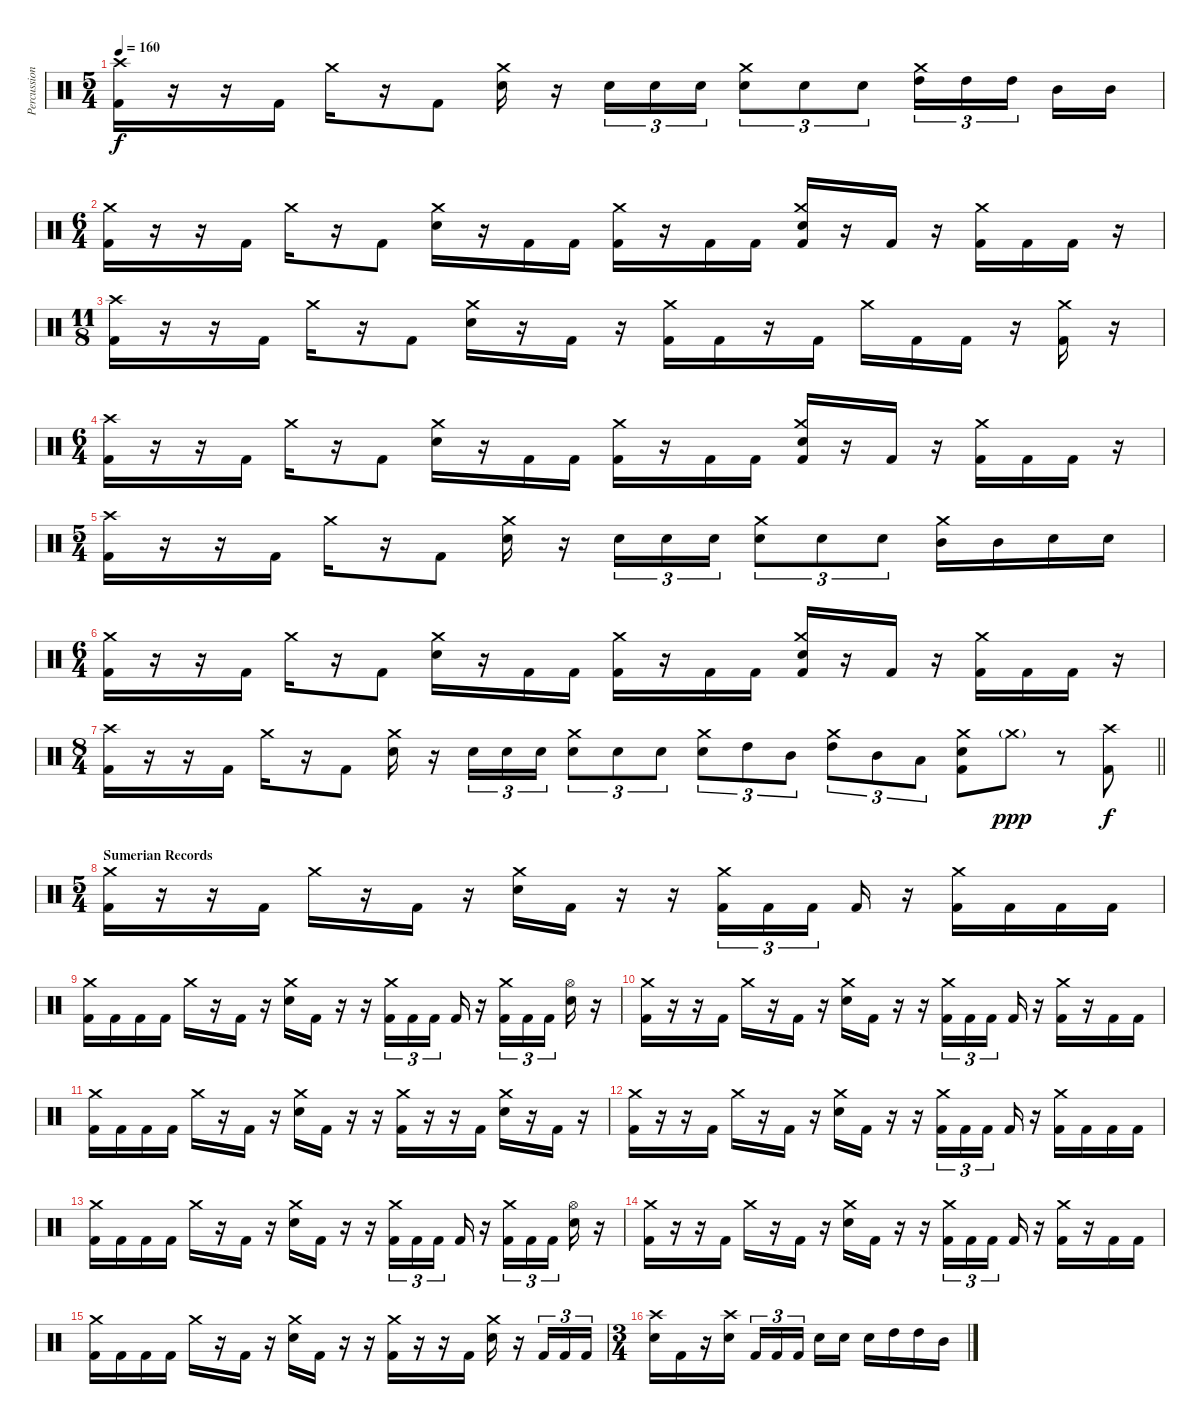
\track ("Percussion" "Percussion") {instrument percussion}
\staff {score}
\articulation defaults
\ts (5 4)
\tempo 160
\clef neutral
\ks c
("Crash high (hit)" "Kick (hit) 2").16{dy f} r.16 r.16 "Kick (hit) 2".16 "Crash medium (hit)".16 r.16 "Kick (hit) 2".8 ("Crash medium (hit)" "Electric Snare (hit)").16 r.16 "Electric Snare (hit)".16{tu (3 2)} "Electric Snare (hit)".16{tu (3 2)} "Electric Snare (hit)".16{tu (3 2)} ("Crash medium (hit)" "Electric Snare (hit)").8{tu (3 2)} "Electric Snare (hit)".8{tu (3 2)} "Electric Snare (hit)".8{tu (3 2)} ("Crash medium (hit)" "High Tom (hit)").16{tu (3 2)} "High Tom (hit)".16{tu (3 2)} "High Tom (hit)".16{tu (3 2) beam splitsecondary} "Mid Tom (hit)".16 "Mid Tom (hit)".16 |
\ts (6 4)
("Crash medium (hit)" "Kick (hit) 2").16 r.16 r.16 "Kick (hit) 2".16 "Crash medium (hit)".16 r.16 "Kick (hit) 2".8 ("Crash medium (hit)" "Electric Snare (hit)").16 r.16 "Kick (hit) 2".16 "Kick (hit) 2".16 ("Crash medium (hit)" "Kick (hit) 2").16 r.16 "Kick (hit) 2".16 "Kick (hit) 2".16 ("Crash medium (hit)" "Electric Snare (hit)" "Kick (hit) 2").16 r.16 "Kick (hit) 2".16 r.16 ("Crash medium (hit)" "Kick (hit) 2").16 "Kick (hit) 2".16 "Kick (hit) 2".16 r.16 |
\ts (11 8)
("Crash high (hit)" "Kick (hit) 2").16 r.16 r.16 "Kick (hit) 2".16 "Crash medium (hit)".16 r.16 "Kick (hit) 2".8 ("Crash medium (hit)" "Electric Snare (hit)").16 r.16 "Kick (hit) 2".16 r.16 ("Crash medium (hit)" "Kick (hit) 2").16 "Kick (hit) 2".16 r.16 "Kick (hit) 2".16 "Crash medium (hit)".16 "Kick (hit) 2".16 "Kick (hit) 2".16 r.16 ("Crash medium (hit)" "Kick (hit) 2").16 r.16 |
\ts (6 4)
("Crash high (hit)" "Kick (hit) 2").16 r.16 r.16 "Kick (hit) 2".16 "Crash medium (hit)".16 r.16 "Kick (hit) 2".8 ("Crash medium (hit)" "Electric Snare (hit)").16 r.16 "Kick (hit) 2".16 "Kick (hit) 2".16 ("Crash medium (hit)" "Kick (hit) 2").16 r.16 "Kick (hit) 2".16 "Kick (hit) 2".16 ("Crash medium (hit)" "Electric Snare (hit)" "Kick (hit) 2").16 r.16 "Kick (hit) 2".16 r.16 ("Crash medium (hit)" "Kick (hit) 2").16 "Kick (hit) 2".16 "Kick (hit) 2".16 r.16 |
\ts (5 4)
("Crash high (hit)" "Kick (hit) 2").16 r.16 r.16 "Kick (hit) 2".16 "Crash medium (hit)".16 r.16 "Kick (hit) 2".8 ("Crash medium (hit)" "Electric Snare (hit)").16 r.16 "Electric Snare (hit)".16{tu (3 2)} "Electric Snare (hit)".16{tu (3 2)} "Electric Snare (hit)".16{tu (3 2)} ("Crash medium (hit)" "Electric Snare (hit)").8{tu (3 2)} "Electric Snare (hit)".8{tu (3 2)} "Electric Snare (hit)".8{tu (3 2)} ("Crash medium (hit)" "Mid Tom (hit)").16 "Mid Tom (hit)".16 "Electric Snare (hit)".16 "Electric Snare (hit)".16 |
\ts (6 4)
("Crash medium (hit)" "Kick (hit) 2").16 r.16 r.16 "Kick (hit) 2".16 "Crash medium (hit)".16 r.16 "Kick (hit) 2".8 ("Crash medium (hit)" "Electric Snare (hit)").16 r.16 "Kick (hit) 2".16 "Kick (hit) 2".16 ("Crash medium (hit)" "Kick (hit) 2").16 r.16 "Kick (hit) 2".16 "Kick (hit) 2".16 ("Crash medium (hit)" "Electric Snare (hit)" "Kick (hit) 2").16 r.16 "Kick (hit) 2".16 r.16 ("Crash medium (hit)" "Kick (hit) 2").16 "Kick (hit) 2".16 "Kick (hit) 2".16 r.16 |
\ts (8 4)
\barLineRight lightlight
("Crash high (hit)" "Kick (hit) 2").16 r.16 r.16 "Kick (hit) 2".16 "Crash medium (hit)".16 r.16 "Kick (hit) 2".8 ("Crash medium (hit)" "Electric Snare (hit)").16 r.16 "Electric Snare (hit)".16{tu (3 2)} "Electric Snare (hit)".16{tu (3 2)} "Electric Snare (hit)".16{tu (3 2)} ("Crash medium (hit)" "Electric Snare (hit)").8{tu (3 2)} "Electric Snare (hit)".8{tu (3 2)} "Electric Snare (hit)".8{tu (3 2)} ("Crash medium (hit)" "Electric Snare (hit)").8{tu (3 2)} "High Tom (hit)".8{tu (3 2)} "Mid Tom (hit)".8{tu (3 2)} ("Crash medium (hit)" "High Tom (hit)").8{tu (3 2)} "Mid Tom (hit)".8{tu (3 2)} "Low Tom (hit)".8{tu (3 2)} ("Crash medium (hit)" "Electric Snare (hit)" "Kick (hit) 2").8 "Crash medium (hit)"{g}.8{dy ppp} r.8 ("Crash high (hit)" "Kick (hit) 2").8{dy f} |
\ts (5 4)
\section ("" "Sumerian Records")
("Crash medium (hit)" "Kick (hit) 2").16 r.16 r.16 "Kick (hit) 2".16 "Crash medium (hit)".16 r.16 "Kick (hit) 2".16 r.16 ("Crash medium (hit)" "Electric Snare (hit)").16 "Kick (hit) 2".16 r.16 r.16 ("Crash medium (hit)" "Kick (hit) 2").16{tu (3 2)} "Kick (hit) 2".16{tu (3 2)} "Kick (hit) 2".16{tu (3 2) beam splitsecondary} "Kick (hit) 2".16 r.16 ("Crash medium (hit)" "Kick (hit) 2").16 "Kick (hit) 2".16 "Kick (hit) 2".16 "Kick (hit) 2".16 |
("Crash medium (hit)" "Kick (hit) 2").16 "Kick (hit) 2".16 "Kick (hit) 2".16 "Kick (hit) 2".16 "Crash medium (hit)".16 r.16 "Kick (hit) 2".16 r.16 ("Crash medium (hit)" "Electric Snare (hit)").16 "Kick (hit) 2".16 r.16 r.16 ("Crash medium (hit)" "Kick (hit) 2").16{tu (3 2)} "Kick (hit) 2".16{tu (3 2)} "Kick (hit) 2".16{tu (3 2) beam splitsecondary} "Kick (hit) 2".16 r.16 ("Crash medium (hit)" "Kick (hit) 2").16{tu (3 2)} "Kick (hit) 2".16{tu (3 2)} "Kick (hit) 2".16{tu (3 2) beam splitsecondary} ("Hi-Hat (open)" "Electric Snare (hit)").16 r.16 |
("Crash medium (hit)" "Kick (hit) 2").16 r.16 r.16 "Kick (hit) 2".16 "Crash medium (hit)".16 r.16 "Kick (hit) 2".16 r.16 ("Crash medium (hit)" "Electric Snare (hit)").16 "Kick (hit) 2".16 r.16 r.16 ("Crash medium (hit)" "Kick (hit) 2").16{tu (3 2)} "Kick (hit) 2".16{tu (3 2)} "Kick (hit) 2".16{tu (3 2) beam splitsecondary} "Kick (hit) 2".16 r.16 ("Crash medium (hit)" "Kick (hit) 2").16 r.16 "Kick (hit) 2".16 "Kick (hit) 2".16 |
("Crash medium (hit)" "Kick (hit) 2").16 "Kick (hit) 2".16 "Kick (hit) 2".16 "Kick (hit) 2".16 "Crash medium (hit)".16 r.16 "Kick (hit) 2".16 r.16 ("Crash medium (hit)" "Electric Snare (hit)").16 "Kick (hit) 2".16 r.16 r.16 ("Crash medium (hit)" "Kick (hit) 2").16 r.16 r.16 "Kick (hit) 2".16 ("Crash medium (hit)" "Electric Snare (hit)").16 r.16 "Kick (hit) 2".16 r.16 |
("Crash medium (hit)" "Kick (hit) 2").16 r.16 r.16 "Kick (hit) 2".16 "Crash medium (hit)".16 r.16 "Kick (hit) 2".16 r.16 ("Crash medium (hit)" "Electric Snare (hit)").16 "Kick (hit) 2".16 r.16 r.16 ("Crash medium (hit)" "Kick (hit) 2").16{tu (3 2)} "Kick (hit) 2".16{tu (3 2)} "Kick (hit) 2".16{tu (3 2) beam splitsecondary} "Kick (hit) 2".16 r.16 ("Crash medium (hit)" "Kick (hit) 2").16 "Kick (hit) 2".16 "Kick (hit) 2".16 "Kick (hit) 2".16 |
("Crash medium (hit)" "Kick (hit) 2").16 "Kick (hit) 2".16 "Kick (hit) 2".16 "Kick (hit) 2".16 "Crash medium (hit)".16 r.16 "Kick (hit) 2".16 r.16 ("Crash medium (hit)" "Electric Snare (hit)").16 "Kick (hit) 2".16 r.16 r.16 ("Crash medium (hit)" "Kick (hit) 2").16{tu (3 2)} "Kick (hit) 2".16{tu (3 2)} "Kick (hit) 2".16{tu (3 2) beam splitsecondary} "Kick (hit) 2".16 r.16 ("Crash medium (hit)" "Kick (hit) 2").16{tu (3 2)} "Kick (hit) 2".16{tu (3 2)} "Kick (hit) 2".16{tu (3 2) beam splitsecondary} ("Hi-Hat (open)" "Electric Snare (hit)").16 r.16 |
("Crash medium (hit)" "Kick (hit) 2").16 r.16 r.16 "Kick (hit) 2".16 "Crash medium (hit)".16 r.16 "Kick (hit) 2".16 r.16 ("Crash medium (hit)" "Electric Snare (hit)").16 "Kick (hit) 2".16 r.16 r.16 ("Crash medium (hit)" "Kick (hit) 2").16{tu (3 2)} "Kick (hit) 2".16{tu (3 2)} "Kick (hit) 2".16{tu (3 2) beam splitsecondary} "Kick (hit) 2".16 r.16 ("Crash medium (hit)" "Kick (hit) 2").16 r.16 "Kick (hit) 2".16 "Kick (hit) 2".16 |
("Crash medium (hit)" "Kick (hit) 2").16 "Kick (hit) 2".16 "Kick (hit) 2".16 "Kick (hit) 2".16 "Crash medium (hit)".16 r.16 "Kick (hit) 2".16 r.16 ("Crash medium (hit)" "Electric Snare (hit)").16 "Kick (hit) 2".16 r.16 r.16 ("Crash medium (hit)" "Kick (hit) 2").16 r.16 r.16 "Kick (hit) 2".16 ("Crash medium (hit)" "Electric Snare (hit)").16 r.16 "Kick (hit) 2".16{tu (3 2)} "Kick (hit) 2".16{tu (3 2)} "Kick (hit) 2".16{tu (3 2)} |
\ts (3 4)
("Crash high (hit)" "Electric Snare (hit)").16 "Kick (hit) 2".16 r.16 ("Crash high (hit)" "Electric Snare (hit)").16 "Kick (hit) 2".16{tu (3 2)} "Kick (hit) 2".16{tu (3 2)} "Kick (hit) 2".16{tu (3 2) beam splitsecondary} "Electric Snare (hit)".16 "Electric Snare (hit)".16 "Electric Snare (hit)".16 "High Tom (hit)".16 "High Tom (hit)".16 "Mid Tom (hit)".16
